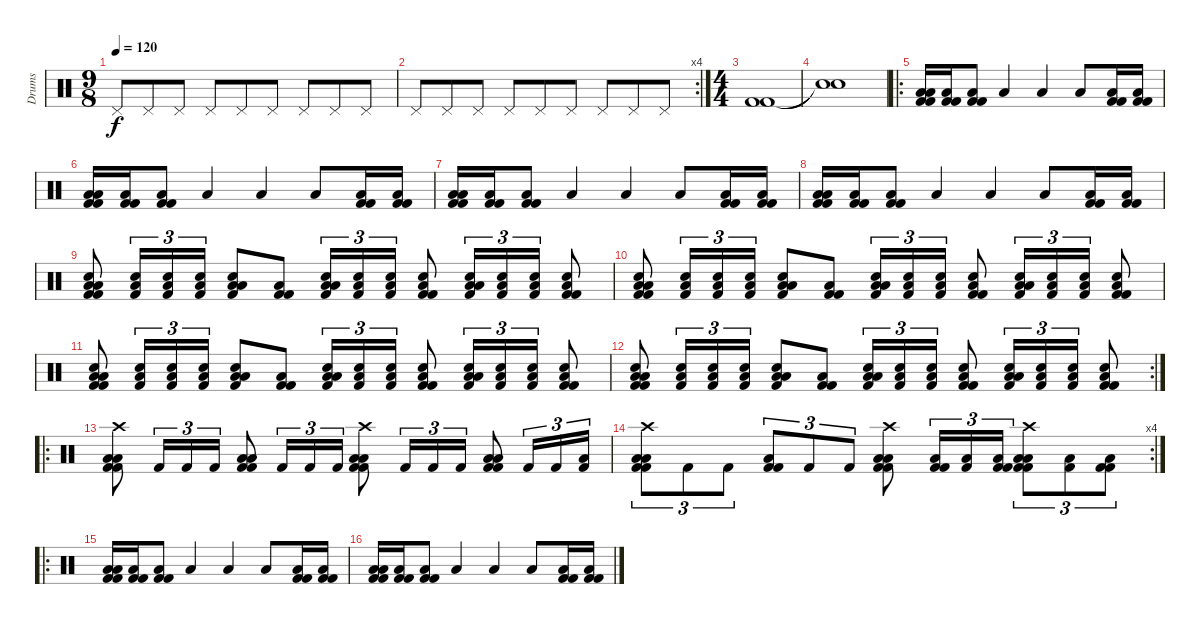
\track ("Drums" "Drums") {instrument percussion}
\staff {score}
\articulation defaults
\ts (9 8)
\tempo 120
\clef neutral
\ks c "Pedal Hi-Hat (hit)".8{dy f volume 3} "Pedal Hi-Hat (hit)".8 "Pedal Hi-Hat (hit)".8 "Pedal Hi-Hat (hit)".8 "Pedal Hi-Hat (hit)".8 "Pedal Hi-Hat (hit)".8 "Pedal Hi-Hat (hit)".8 "Pedal Hi-Hat (hit)".8 "Pedal Hi-Hat (hit)".8
|
\rc 4 "Pedal Hi-Hat (hit)".8 "Pedal Hi-Hat (hit)".8 "Pedal Hi-Hat (hit)".8 "Pedal Hi-Hat (hit)".8 "Pedal Hi-Hat (hit)".8 "Pedal Hi-Hat (hit)".8 "Pedal Hi-Hat (hit)".8 "Pedal Hi-Hat (hit)".8 "Pedal Hi-Hat (hit)".8
|
\ts (4 4)
("Kick (hit) 2" "Kick (hit) 2").1 |
("Snare (hit)"{t} "Snare (hit)"{t}).1 |
\ro
("Low Tom (hit)" "Low Floor Tom (hit)" "Kick (hit) 2" "Kick (hit) 2").16{volume 12} ("Low Floor Tom (hit)" "Kick (hit) 2" "Kick (hit) 2").16 ("Low Floor Tom (hit)" "Kick (hit) 2" "Kick (hit) 2").8 "Low Tom (hit)".4 "Low Tom (hit)".4 "Low Tom (hit)".8 ("Low Floor Tom (hit)" "Kick (hit) 2" "Kick (hit) 2").16 ("Low Floor Tom (hit)" "Kick (hit) 2" "Kick (hit) 2").16 |
("Low Tom (hit)" "Low Floor Tom (hit)" "Kick (hit) 2" "Kick (hit) 2").16 ("Low Floor Tom (hit)" "Kick (hit) 2" "Kick (hit) 2").16 ("Low Floor Tom (hit)" "Kick (hit) 2" "Kick (hit) 2").8 "Low Tom (hit)".4 "Low Tom (hit)".4 "Low Tom (hit)".8 ("Low Floor Tom (hit)" "Kick (hit) 2" "Kick (hit) 2").16 ("Low Floor Tom (hit)" "Kick (hit) 2" "Kick (hit) 2").16 |
("Low Tom (hit)" "Low Floor Tom (hit)" "Kick (hit) 2" "Kick (hit) 2").16 ("Low Floor Tom (hit)" "Kick (hit) 2" "Kick (hit) 2").16 ("Low Floor Tom (hit)" "Kick (hit) 2" "Kick (hit) 2").8 "Low Tom (hit)".4 "Low Tom (hit)".4 "Low Tom (hit)".8 ("Low Floor Tom (hit)" "Kick (hit) 2" "Kick (hit) 2").16 ("Low Floor Tom (hit)" "Kick (hit) 2" "Kick (hit) 2").16 |
("Low Tom (hit)" "Low Floor Tom (hit)" "Kick (hit) 2" "Kick (hit) 2").16 ("Low Floor Tom (hit)" "Kick (hit) 2" "Kick (hit) 2").16 ("Low Floor Tom (hit)" "Kick (hit) 2" "Kick (hit) 2").8 "Low Tom (hit)".4 "Low Tom (hit)".4 "Low Tom (hit)".8 ("Low Floor Tom (hit)" "Kick (hit) 2" "Kick (hit) 2").16 ("Low Floor Tom (hit)" "Kick (hit) 2" "Kick (hit) 2").16 |
("Snare (hit) 2" "Low Tom (hit)" "Low Floor Tom (hit)" "Kick (hit) 2" "Kick (hit) 2").8 ("Snare (hit) 2" "Low Floor Tom (hit)" "Kick (hit) 2").16{tu (3 2)} ("Snare (hit) 2" "Low Floor Tom (hit)" "Kick (hit) 2").16{tu (3 2)} ("Snare (hit) 2" "Low Floor Tom (hit)" "Kick (hit) 2").16{tu (3 2)} ("Snare (hit) 2" "Low Tom (hit)" "Low Floor Tom (hit)" "Kick (hit) 2").8 ("Low Floor Tom (hit)" "Kick (hit) 2" "Kick (hit) 2").8 ("Snare (hit) 2" "Low Tom (hit)" "Low Floor Tom (hit)" "Kick (hit) 2").16{tu (3 2)} ("Snare (hit) 2" "Low Floor Tom (hit)" "Kick (hit) 2").16{tu (3 2)} ("Snare (hit) 2" "Low Floor Tom (hit)" "Kick (hit) 2").16{tu (3 2)} ("Snare (hit) 2" "Low Floor Tom (hit)" "Kick (hit) 2" "Kick (hit) 2").8 ("Snare (hit) 2" "Low Tom (hit)" "Low Floor Tom (hit)" "Kick (hit) 2").16{tu (3 2)} ("Snare (hit) 2" "Low Floor Tom (hit)" "Kick (hit) 2").16{tu (3 2)} ("Snare (hit) 2" "Low Floor Tom (hit)" "Kick (hit) 2").16{tu (3 2)} ("Snare (hit) 2" "Low Floor Tom (hit)" "Kick (hit) 2" "Kick (hit) 2").8 |
("Snare (hit) 2" "Low Tom (hit)" "Low Floor Tom (hit)" "Kick (hit) 2" "Kick (hit) 2").8 ("Snare (hit) 2" "Low Floor Tom (hit)" "Kick (hit) 2").16{tu (3 2)} ("Snare (hit) 2" "Low Floor Tom (hit)" "Kick (hit) 2").16{tu (3 2)} ("Snare (hit) 2" "Low Floor Tom (hit)" "Kick (hit) 2").16{tu (3 2)} ("Snare (hit) 2" "Low Tom (hit)" "Low Floor Tom (hit)" "Kick (hit) 2").8 ("Low Floor Tom (hit)" "Kick (hit) 2" "Kick (hit) 2").8 ("Snare (hit) 2" "Low Tom (hit)" "Low Floor Tom (hit)" "Kick (hit) 2").16{tu (3 2)} ("Snare (hit) 2" "Low Floor Tom (hit)" "Kick (hit) 2").16{tu (3 2)} ("Snare (hit) 2" "Low Floor Tom (hit)" "Kick (hit) 2").16{tu (3 2)} ("Snare (hit) 2" "Low Floor Tom (hit)" "Kick (hit) 2" "Kick (hit) 2").8 ("Snare (hit) 2" "Low Tom (hit)" "Low Floor Tom (hit)" "Kick (hit) 2").16{tu (3 2)} ("Snare (hit) 2" "Low Floor Tom (hit)" "Kick (hit) 2").16{tu (3 2)} ("Snare (hit) 2" "Low Floor Tom (hit)" "Kick (hit) 2").16{tu (3 2)} ("Snare (hit) 2" "Low Floor Tom (hit)" "Kick (hit) 2" "Kick (hit) 2").8 |
("Snare (hit) 2" "Low Tom (hit)" "Low Floor Tom (hit)" "Kick (hit) 2" "Kick (hit) 2").8 ("Snare (hit) 2" "Low Floor Tom (hit)" "Kick (hit) 2").16{tu (3 2)} ("Snare (hit) 2" "Low Floor Tom (hit)" "Kick (hit) 2").16{tu (3 2)} ("Snare (hit) 2" "Low Floor Tom (hit)" "Kick (hit) 2").16{tu (3 2)} ("Snare (hit) 2" "Low Tom (hit)" "Low Floor Tom (hit)" "Kick (hit) 2").8 ("Low Floor Tom (hit)" "Kick (hit) 2" "Kick (hit) 2").8 ("Snare (hit) 2" "Low Tom (hit)" "Low Floor Tom (hit)" "Kick (hit) 2").16{tu (3 2)} ("Snare (hit) 2" "Low Floor Tom (hit)" "Kick (hit) 2").16{tu (3 2)} ("Snare (hit) 2" "Low Floor Tom (hit)" "Kick (hit) 2").16{tu (3 2)} ("Snare (hit) 2" "Low Floor Tom (hit)" "Kick (hit) 2" "Kick (hit) 2").8 ("Snare (hit) 2" "Low Tom (hit)" "Low Floor Tom (hit)" "Kick (hit) 2").16{tu (3 2)} ("Snare (hit) 2" "Low Floor Tom (hit)" "Kick (hit) 2").16{tu (3 2)} ("Snare (hit) 2" "Low Floor Tom (hit)" "Kick (hit) 2").16{tu (3 2)} ("Snare (hit) 2" "Low Floor Tom (hit)" "Kick (hit) 2" "Kick (hit) 2").8 |
\rc 2
("Snare (hit) 2" "Low Tom (hit)" "Low Floor Tom (hit)" "Kick (hit) 2" "Kick (hit) 2").8 ("Snare (hit) 2" "Low Floor Tom (hit)" "Kick (hit) 2").16{tu (3 2)} ("Snare (hit) 2" "Low Floor Tom (hit)" "Kick (hit) 2").16{tu (3 2)} ("Snare (hit) 2" "Low Floor Tom (hit)" "Kick (hit) 2").16{tu (3 2)} ("Snare (hit) 2" "Low Tom (hit)" "Low Floor Tom (hit)" "Kick (hit) 2").8 ("Low Floor Tom (hit)" "Kick (hit) 2" "Kick (hit) 2").8 ("Snare (hit) 2" "Low Tom (hit)" "Low Floor Tom (hit)" "Kick (hit) 2").16{tu (3 2)} ("Snare (hit) 2" "Low Floor Tom (hit)" "Kick (hit) 2").16{tu (3 2)} ("Snare (hit) 2" "Low Floor Tom (hit)" "Kick (hit) 2").16{tu (3 2)} ("Snare (hit) 2" "Low Floor Tom (hit)" "Kick (hit) 2" "Kick (hit) 2").8 ("Snare (hit) 2" "Low Tom (hit)" "Low Floor Tom (hit)" "Kick (hit) 2").16{tu (3 2)} ("Snare (hit) 2" "Low Floor Tom (hit)" "Kick (hit) 2").16{tu (3 2)} ("Snare (hit) 2" "Low Floor Tom (hit)" "Kick (hit) 2").16{tu (3 2)} ("Snare (hit) 2" "Low Floor Tom (hit)" "Kick (hit) 2" "Kick (hit) 2").8 |
\ro
("Low Tom (hit)" "Crash high (hit)" "Low Floor Tom (hit)" "Kick (hit) 2" "Kick (hit) 2").8 "Kick (hit) 2".16{tu (3 2)} "Kick (hit) 2".16{tu (3 2)} "Kick (hit) 2".16{tu (3 2)} ("Low Tom (hit)" "Low Floor Tom (hit)" "Kick (hit) 2" "Kick (hit) 2").8 "Kick (hit) 2".16{tu (3 2)} "Kick (hit) 2".16{tu (3 2)} "Kick (hit) 2".16{tu (3 2)} ("Low Tom (hit)" "Crash high (hit)" "Low Floor Tom (hit)" "Kick (hit) 2" "Kick (hit) 2").8 "Kick (hit) 2".16{tu (3 2)} "Kick (hit) 2".16{tu (3 2)} "Kick (hit) 2".16{tu (3 2)} ("Low Tom (hit)" "Low Floor Tom (hit)" "Kick (hit) 2" "Kick (hit) 2").8 "Kick (hit) 2".16{tu (3 2)} "Kick (hit) 2".16{tu (3 2)} ("Low Tom (hit)" "Kick (hit) 2").16{tu (3 2)} |
\rc 4
("Low Tom (hit)" "Crash high (hit)" "Low Floor Tom (hit)" "Kick (hit) 2" "Kick (hit) 2").8{tu (3 2)} "Kick (hit) 2".8{tu (3 2)} "Kick (hit) 2".8{tu (3 2)} ("Low Floor Tom (hit)" "Kick (hit) 2" "Kick (hit) 2").8{tu (3 2)} "Kick (hit) 2".8{tu (3 2)} "Kick (hit) 2".8{tu (3 2)} ("Low Tom (hit)" "Crash high (hit)" "Low Floor Tom (hit)" "Kick (hit) 2" "Kick (hit) 2").8 ("Low Tom (hit)" "Kick (hit) 2" "Kick (hit) 2").16{tu (3 2)} ("Low Tom (hit)" "Kick (hit) 2").16{tu (3 2)} ("Low Tom (hit)" "Kick (hit) 2" "Kick (hit) 2").16{tu (3 2)} ("Low Tom (hit)" "Crash high (hit)" "Low Floor Tom (hit)" "Kick (hit) 2" "Kick (hit) 2").8{tu (3 2)} ("Low Tom (hit)" "Kick (hit) 2").8{tu (3 2)} ("Low Tom (hit)" "Kick (hit) 2" "Kick (hit) 2").8{tu (3 2)} |
\ro
("Low Tom (hit)" "Low Floor Tom (hit)" "Kick (hit) 2" "Kick (hit) 2").16 ("Low Floor Tom (hit)" "Kick (hit) 2" "Kick (hit) 2").16 ("Low Floor Tom (hit)" "Kick (hit) 2" "Kick (hit) 2").8 "Low Tom (hit)".4 "Low Tom (hit)".4 "Low Tom (hit)".8 ("Low Floor Tom (hit)" "Kick (hit) 2" "Kick (hit) 2").16 ("Low Floor Tom (hit)" "Kick (hit) 2" "Kick (hit) 2").16 |
("Low Tom (hit)" "Low Floor Tom (hit)" "Kick (hit) 2" "Kick (hit) 2").16 ("Low Floor Tom (hit)" "Kick (hit) 2" "Kick (hit) 2").16 ("Low Floor Tom (hit)" "Kick (hit) 2" "Kick (hit) 2").8 "Low Tom (hit)".4 "Low Tom (hit)".4 "Low Tom (hit)".8 ("Low Floor Tom (hit)" "Kick (hit) 2" "Kick (hit) 2").16 ("Low Floor Tom (hit)" "Kick (hit) 2" "Kick (hit) 2").16
